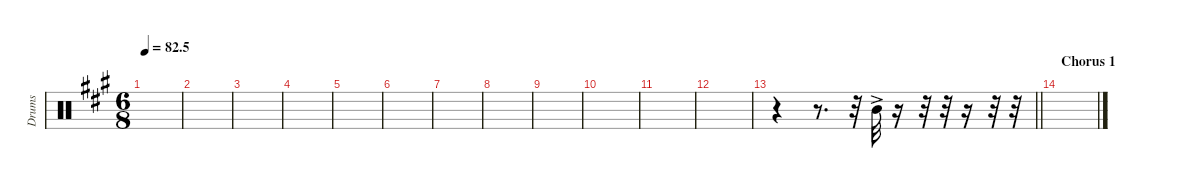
\defaultSystemsLayout 4
\hideDynamics
\bracketExtendMode nobrackets
\otherSystemsTrackNameOrientation horizontal
\track ("Tom 02" "Drums") {instrument percussion}
\staff {score}
\articulation defaults
\ts (6 8)
\tempo
82.5
\accidentals auto
\clef neutral
\ottava regular
\simile none
\scale
0.333333
\ks a
|
\scale
0.333333 |
\scale
0.333333 |
\scale
0.333333 |
\scale
0.333333 |
\scale
0.333333 |
\scale
0.333333 |
\scale
0.333333 |
\scale
0.333333 |
\scale
0.333333 |
\scale
0.333333 |
\scale
0.333333 |
\scale
0.333333
\barLineRight lightlight
r.4 r.8{d} r.32 "Mid Tom (hit)"{ac acc forcenatural}.32 r.16 r.32 r.32 r.16 r.32 r.32 |
\section ("" "Chorus 1")
\scale
0.333333 |
\scale
0.333333 |
\scale
0.333333
